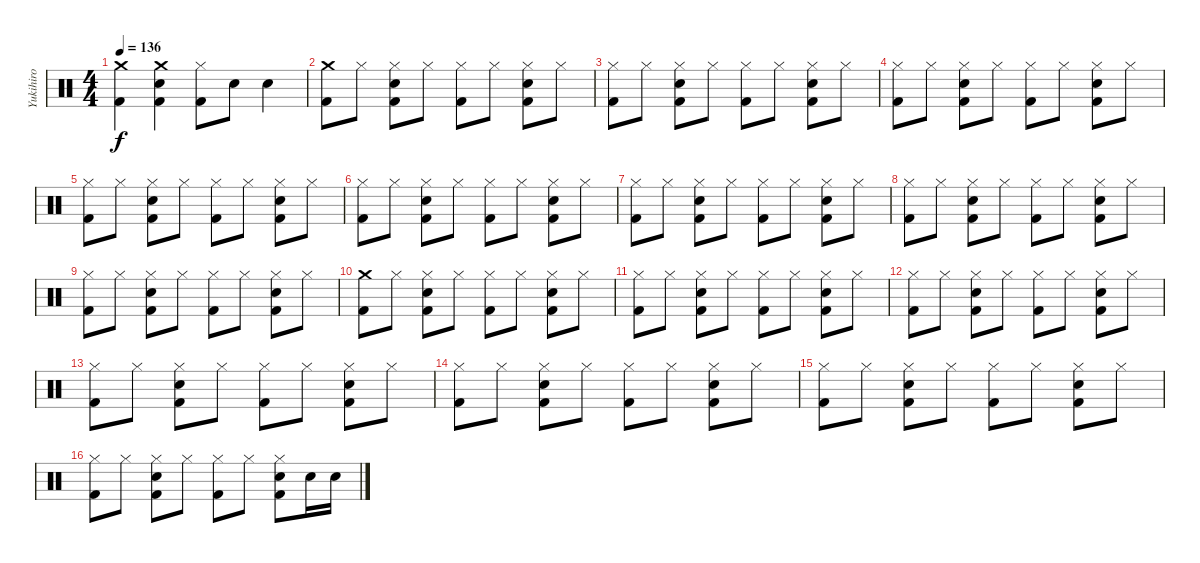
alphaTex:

\track ("Yukihiro" "Yukihiro") {instrument percussion}
\staff {score}
\articulation defaults
\ts (4 4)
\tempo 136
\clef neutral
\ks c
("Crash medium (hit)" "Kick (hit) 2").4{dy f} ("Crash medium (hit)" "Snare (hit) 2" "Kick (hit) 2").4 ("Hi-Hat (closed)" "Kick (hit) 2").8 "Snare (hit) 2".8 "Snare (hit) 2".4 |
("Crash medium (hit)" "Kick (hit) 2").8 "Hi-Hat (closed)".8 ("Hi-Hat (closed)" "Snare (hit) 2" "Kick (hit) 2").8 "Hi-Hat (closed)".8 ("Hi-Hat (closed)" "Kick (hit) 2").8 "Hi-Hat (closed)".8 ("Hi-Hat (closed)" "Snare (hit) 2" "Kick (hit) 2").8 "Hi-Hat (closed)".8 |
("Hi-Hat (closed)" "Kick (hit) 2").8 "Hi-Hat (closed)".8 ("Hi-Hat (closed)" "Snare (hit) 2" "Kick (hit) 2").8 "Hi-Hat (closed)".8 ("Hi-Hat (closed)" "Kick (hit) 2").8 "Hi-Hat (closed)".8 ("Hi-Hat (closed)" "Snare (hit) 2" "Kick (hit) 2").8 "Hi-Hat (closed)".8 |
("Hi-Hat (closed)" "Kick (hit) 2").8 "Hi-Hat (closed)".8 ("Hi-Hat (closed)" "Snare (hit) 2" "Kick (hit) 2").8 "Hi-Hat (closed)".8 ("Hi-Hat (closed)" "Kick (hit) 2").8 "Hi-Hat (closed)".8 ("Hi-Hat (closed)" "Snare (hit) 2" "Kick (hit) 2").8 "Hi-Hat (closed)".8 |
("Hi-Hat (closed)" "Kick (hit) 2").8 "Hi-Hat (closed)".8 ("Hi-Hat (closed)" "Snare (hit) 2" "Kick (hit) 2").8 "Hi-Hat (closed)".8 ("Hi-Hat (closed)" "Kick (hit) 2").8 "Hi-Hat (closed)".8 ("Hi-Hat (closed)" "Snare (hit) 2" "Kick (hit) 2").8 "Hi-Hat (closed)".8 |
("Hi-Hat (closed)" "Kick (hit) 2").8 "Hi-Hat (closed)".8 ("Hi-Hat (closed)" "Snare (hit) 2" "Kick (hit) 2").8 "Hi-Hat (closed)".8 ("Hi-Hat (closed)" "Kick (hit) 2").8 "Hi-Hat (closed)".8 ("Hi-Hat (closed)" "Snare (hit) 2" "Kick (hit) 2").8 "Hi-Hat (closed)".8 |
("Hi-Hat (closed)" "Kick (hit) 2").8 "Hi-Hat (closed)".8 ("Hi-Hat (closed)" "Snare (hit) 2" "Kick (hit) 2").8 "Hi-Hat (closed)".8 ("Hi-Hat (closed)" "Kick (hit) 2").8 "Hi-Hat (closed)".8 ("Hi-Hat (closed)" "Snare (hit) 2" "Kick (hit) 2").8 "Hi-Hat (closed)".8 |
("Hi-Hat (closed)" "Kick (hit) 2").8 "Hi-Hat (closed)".8 ("Hi-Hat (closed)" "Snare (hit) 2" "Kick (hit) 2").8 "Hi-Hat (closed)".8 ("Hi-Hat (closed)" "Kick (hit) 2").8 "Hi-Hat (closed)".8 ("Hi-Hat (closed)" "Snare (hit) 2" "Kick (hit) 2").8 "Hi-Hat (closed)".8 |
("Hi-Hat (closed)" "Kick (hit) 2").8 "Hi-Hat (closed)".8 ("Hi-Hat (closed)" "Snare (hit) 2" "Kick (hit) 2").8 "Hi-Hat (closed)".8 ("Hi-Hat (closed)" "Kick (hit) 2").8 "Hi-Hat (closed)".8 ("Hi-Hat (closed)" "Snare (hit) 2" "Kick (hit) 2").8 "Hi-Hat (closed)".8 |
("Crash medium (hit)" "Kick (hit) 2").8 "Hi-Hat (closed)".8 ("Hi-Hat (closed)" "Snare (hit) 2" "Kick (hit) 2").8 "Hi-Hat (closed)".8 ("Hi-Hat (closed)" "Kick (hit) 2").8 "Hi-Hat (closed)".8 ("Hi-Hat (closed)" "Snare (hit) 2" "Kick (hit) 2").8 "Hi-Hat (closed)".8 |
("Hi-Hat (closed)" "Kick (hit) 2").8 "Hi-Hat (closed)".8 ("Hi-Hat (closed)" "Snare (hit) 2" "Kick (hit) 2").8 "Hi-Hat (closed)".8 ("Hi-Hat (closed)" "Kick (hit) 2").8 "Hi-Hat (closed)".8 ("Hi-Hat (closed)" "Snare (hit) 2" "Kick (hit) 2").8 "Hi-Hat (closed)".8 |
("Hi-Hat (closed)" "Kick (hit) 2").8 "Hi-Hat (closed)".8 ("Hi-Hat (closed)" "Snare (hit) 2" "Kick (hit) 2").8 "Hi-Hat (closed)".8 ("Hi-Hat (closed)" "Kick (hit) 2").8 "Hi-Hat (closed)".8 ("Hi-Hat (closed)" "Snare (hit) 2" "Kick (hit) 2").8 "Hi-Hat (closed)".8 |
("Hi-Hat (closed)" "Kick (hit) 2").8 "Hi-Hat (closed)".8 ("Hi-Hat (closed)" "Snare (hit) 2" "Kick (hit) 2").8 "Hi-Hat (closed)".8 ("Hi-Hat (closed)" "Kick (hit) 2").8 "Hi-Hat (closed)".8 ("Hi-Hat (closed)" "Snare (hit) 2" "Kick (hit) 2").8 "Hi-Hat (closed)".8 |
("Hi-Hat (closed)" "Kick (hit) 2").8 "Hi-Hat (closed)".8 ("Hi-Hat (closed)" "Snare (hit) 2" "Kick (hit) 2").8 "Hi-Hat (closed)".8 ("Hi-Hat (closed)" "Kick (hit) 2").8 "Hi-Hat (closed)".8 ("Hi-Hat (closed)" "Snare (hit) 2" "Kick (hit) 2").8 "Hi-Hat (closed)".8 |
("Hi-Hat (closed)" "Kick (hit) 2").8 "Hi-Hat (closed)".8 ("Hi-Hat (closed)" "Snare (hit) 2" "Kick (hit) 2").8 "Hi-Hat (closed)".8 ("Hi-Hat (closed)" "Kick (hit) 2").8 "Hi-Hat (closed)".8 ("Hi-Hat (closed)" "Snare (hit) 2" "Kick (hit) 2").8 "Hi-Hat (closed)".8 |
("Hi-Hat (closed)" "Kick (hit) 2").8 "Hi-Hat (closed)".8 ("Hi-Hat (closed)" "Snare (hit) 2" "Kick (hit) 2").8 "Hi-Hat (closed)".8 ("Hi-Hat (closed)" "Kick (hit) 2").8 "Hi-Hat (closed)".8 ("Hi-Hat (closed)" "Snare (hit) 2" "Kick (hit) 2").8 "Snare (hit) 2".16 "Snare (hit) 2".16
